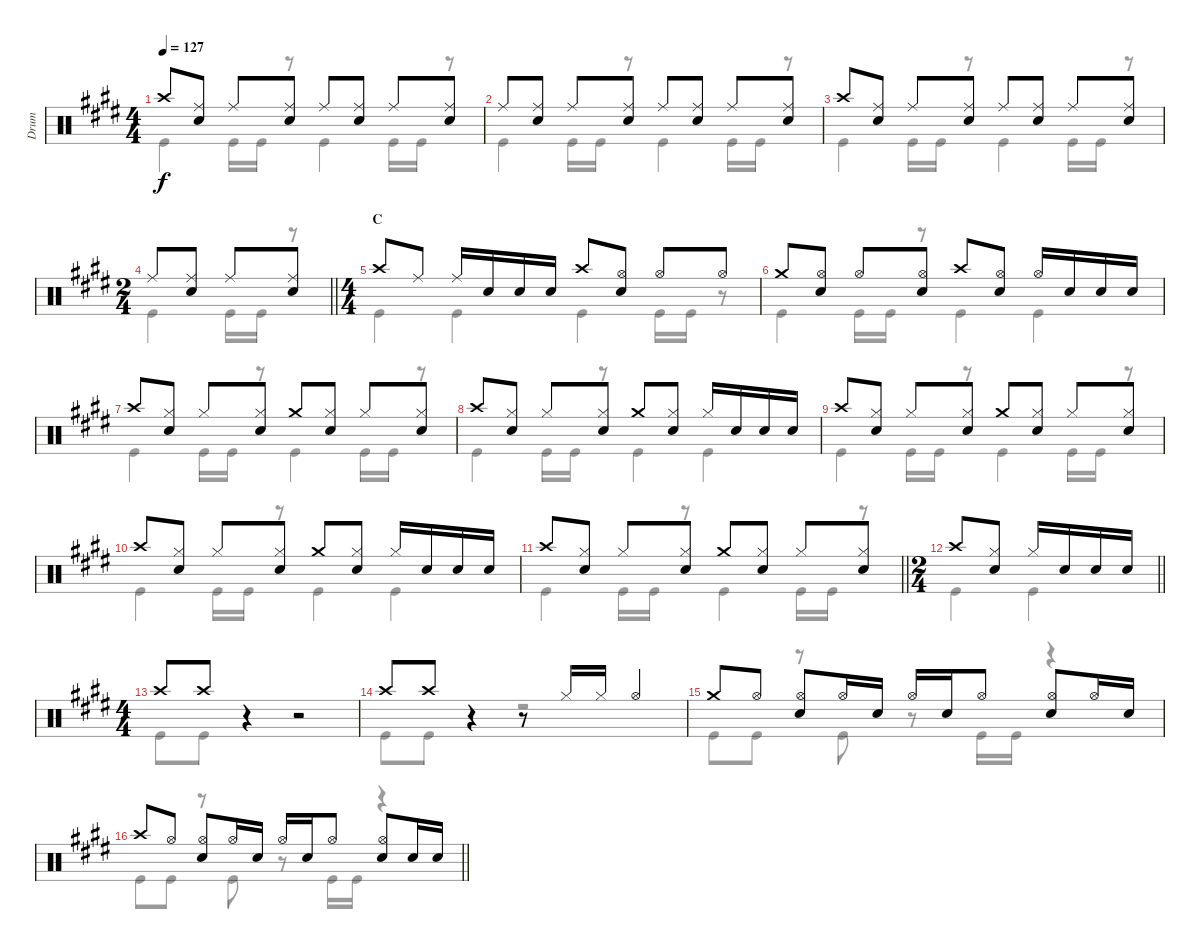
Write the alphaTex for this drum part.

\track ("Drum" "Drum") {instrument percussion}
\staff {score}
\articulation defaults
\voice
\ts (4 4)
\tempo 127
\clef neutral
\ks e "Crash high (hit)".8{dy f}
("Snare (hit) 2" "Ride (middle)").8 "Ride (middle)".8 ("Ride (middle)" "Snare (hit) 2").8 "Ride (middle)".8 ("Ride (middle)" "Snare (hit) 2").8 "Ride (middle)".8 ("Ride (middle)" "Snare (hit) 2").8 |
"Ride (middle)".8 ("Ride (middle)" "Snare (hit) 2").8 "Ride (middle)".8 ("Ride (middle)" "Snare (hit) 2").8 "Ride (middle)".8 ("Ride (middle)" "Snare (hit) 2").8 "Ride (middle)".8 ("Ride (middle)" "Snare (hit) 2").8 |
"Crash high (hit)".8 ("Snare (hit) 2" "Ride (middle)").8 "Ride (middle)".8 ("Ride (middle)" "Snare (hit) 2").8 "Ride (middle)".8 ("Ride (middle)" "Snare (hit) 2").8 "Ride (middle)".8 ("Ride (middle)" "Snare (hit) 2").8 |
\ts (2 4)
\barLineRight lightlight "Ride (middle)".8
("Ride (middle)" "Snare (hit) 2").8 "Ride (middle)".8 ("Ride (middle)" "Snare (hit) 2").8 |
\ts (4 4)
\section ("" "C")
"Crash high (hit)".8 "Ride (middle)".8 "Ride (middle)".16 "Snare (hit) 2".16 "Snare (hit) 2".16 "Snare (hit) 2".16 "Crash high (hit)".8 ("Hi-Hat (open)" "Snare (hit) 2").8 "Hi-Hat (open)".8 "Hi-Hat (open)".8 |
"Crash medium (hit)".8 ("Hi-Hat (open)" "Snare (hit) 2").8 "Hi-Hat (open)".8 ("Hi-Hat (open)" "Snare (hit) 2").8 "Crash high (hit)".8 ("Snare (hit) 2" "Hi-Hat (open)").8 "Hi-Hat (open)".16 "Snare (hit) 2".16 "Snare (hit) 2".16 "Snare (hit) 2".16 |
"Crash high (hit)".8 ("Hi-Hat (closed)" "Snare (hit) 2").8 "Hi-Hat (closed)".8 ("Hi-Hat (closed)" "Snare (hit) 2").8 "Crash medium (hit)".8 ("Hi-Hat (closed)" "Snare (hit) 2").8 "Hi-Hat (closed)".8 ("Hi-Hat (closed)" "Snare (hit) 2").8 |
"Crash high (hit)".8 ("Hi-Hat (closed)" "Snare (hit) 2").8 "Hi-Hat (closed)".8 ("Hi-Hat (closed)" "Snare (hit) 2").8 "Crash medium (hit)".8 ("Hi-Hat (closed)" "Snare (hit) 2").8 "Hi-Hat (closed)".16 "Snare (hit) 2".16 "Snare (hit) 2".16 "Snare (hit) 2".16 |
"Crash high (hit)".8 ("Hi-Hat (closed)" "Snare (hit) 2").8 "Hi-Hat (closed)".8 ("Hi-Hat (closed)" "Snare (hit) 2").8 "Crash medium (hit)".8 ("Hi-Hat (closed)" "Snare (hit) 2").8 "Hi-Hat (closed)".8 ("Hi-Hat (closed)" "Snare (hit) 2").8 |
"Crash high (hit)".8 ("Hi-Hat (closed)" "Snare (hit) 2").8 "Hi-Hat (closed)".8 ("Hi-Hat (closed)" "Snare (hit) 2").8 "Crash medium (hit)".8 ("Hi-Hat (closed)" "Snare (hit) 2").8 "Hi-Hat (closed)".16 "Snare (hit) 2".16 "Snare (hit) 2".16 "Snare (hit) 2".16 |
\barLineRight lightlight "Crash high (hit)".8
("Hi-Hat (closed)" "Snare (hit) 2").8 "Hi-Hat (closed)".8 ("Hi-Hat (closed)" "Snare (hit) 2").8 "Crash medium (hit)".8 ("Hi-Hat (closed)" "Snare (hit) 2").8 "Hi-Hat (closed)".8 ("Hi-Hat (closed)" "Snare (hit) 2").8 |
\ts (2 4)
\barLineRight lightlight "Crash high (hit)".8
("Snare (hit) 2" "Hi-Hat (closed)").8 "Hi-Hat (closed)".16 "Snare (hit) 2".16 "Snare (hit) 2".16 "Snare (hit) 2".16 |
\ts (4 4)
"Crash high (hit)".8 "Crash high (hit)".8 r.4 r.2 |
"Crash high (hit)".8 "Crash high (hit)".8 r.4 r.8 "Hi-Hat (closed)".16 "Hi-Hat (closed)".16 "Hi-Hat (open)".4 |
"Crash medium (hit)".8 "Hi-Hat (open)".8 ("Hi-Hat (open)" "Snare (hit) 2").8 "Hi-Hat (open)".16 "Snare (hit) 2".16 "Hi-Hat (open)".16 "Snare (hit) 2".16 "Hi-Hat (open)".8 ("Snare (hit) 2" "Hi-Hat (open)").8 "Hi-Hat (open)".16 "Snare (hit) 2".16 |
\barLineRight lightlight "Crash high (hit)".8 "Hi-Hat (open)".8
("Hi-Hat (open)" "Snare (hit) 2").8 "Hi-Hat (open)".16 "Snare (hit) 2".16 "Hi-Hat (open)".16 "Snare (hit) 2".16 "Hi-Hat (open)".8 ("Snare (hit) 2" "Hi-Hat (open)").8 "Snare (hit) 2".16 "Snare (hit) 2".16
\voice
\clef neutral
\ottava regular
\simile none
\ks e "Kick (hit)".4{dy f} "Kick (hit)".16 "Kick (hit)".16
r.8 "Kick (hit)".4 "Kick (hit)".16 "Kick (hit)".16 r.8 |
"Kick (hit)".4 "Kick (hit)".16 "Kick (hit)".16 r.8 "Kick (hit)".4 "Kick (hit)".16 "Kick (hit)".16 r.8 |
"Kick (hit)".4 "Kick (hit)".16 "Kick (hit)".16 r.8 "Kick (hit)".4 "Kick (hit)".16 "Kick (hit)".16 r.8 |
\barLineRight lightlight "Kick (hit)".4 "Kick (hit)".16 "Kick (hit)".16
r.8 |
"Kick (hit)".4 "Kick (hit)".4 "Kick (hit)".4 "Kick (hit)".16 "Kick (hit)".16 r.8 |
"Kick (hit)".4 "Kick (hit)".16 "Kick (hit)".16 r.8 "Kick (hit)".4 "Kick (hit)".4 |
"Kick (hit)".4 "Kick (hit)".16 "Kick (hit)".16 r.8 "Kick (hit)".4 "Kick (hit)".16 "Kick (hit)".16 r.8 |
"Kick (hit)".4 "Kick (hit)".16 "Kick (hit)".16 r.8 "Kick (hit)".4 "Kick (hit)".4 |
"Kick (hit)".4 "Kick (hit)".16 "Kick (hit)".16 r.8 "Kick (hit)".4 "Kick (hit)".16 "Kick (hit)".16 r.8 |
"Kick (hit)".4 "Kick (hit)".16 "Kick (hit)".16 r.8 "Kick (hit)".4 "Kick (hit)".4 |
\barLineRight lightlight "Kick (hit)".4 "Kick (hit)".16 "Kick (hit)".16
r.8 "Kick (hit)".4 "Kick (hit)".16 "Kick (hit)".16 r.8 |
\barLineRight lightlight "Kick (hit)".4 "Kick (hit)".4
|
"Kick (hit)".8 "Kick (hit)".8 r.4 r.2 |
"Kick (hit)".8 "Kick (hit)".8 r.4 r.2 |
"Kick (hit)".8 "Kick (hit)".8 r.8 "Kick (hit)".8 r.8 "Kick (hit)".16 "Kick (hit)".16 r.4 |
\barLineRight lightlight "Kick (hit)".8 "Kick (hit)".8
r.8 "Kick (hit)".8 r.8 "Kick (hit)".16 "Kick (hit)".16 r.4
